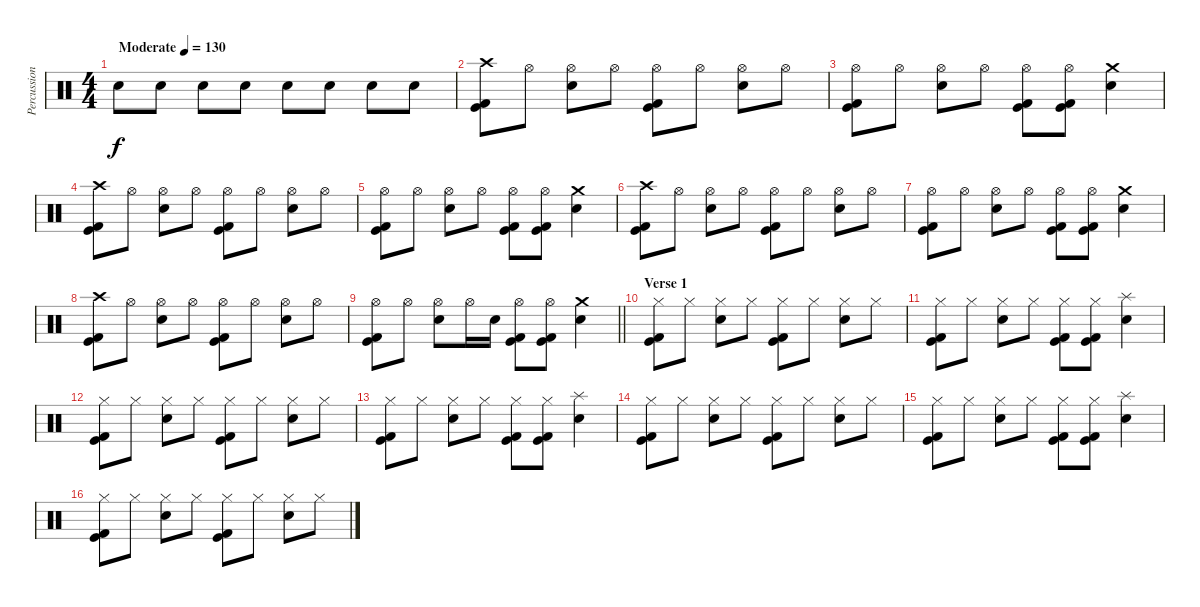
\track ("Percussion" "Percussion") {instrument percussion}
\staff {score}
\articulation defaults
\ts (4 4)
\tempo (130 "Moderate")
\clef neutral
\ks c "Electric Snare (hit)".8{dy f} "Electric Snare (hit)".8 "Electric Snare (hit)".8 "Electric Snare (hit)".8 "Electric Snare (hit)".8 "Electric Snare (hit)".8 "Electric Snare (hit)".8 "Electric Snare (hit)".8
|
("Crash high (hit)" "Kick (hit)" "Kick (hit) 2").8 "Hi-Hat (open)".8 ("Hi-Hat (open)" "Electric Snare (hit)").8 "Hi-Hat (open)".8 ("Hi-Hat (open)" "Kick (hit)" "Kick (hit) 2").8 "Hi-Hat (open)".8 ("Hi-Hat (open)" "Electric Snare (hit)").8 "Hi-Hat (open)".8 |
("Hi-Hat (open)" "Kick (hit)" "Kick (hit) 2").8 "Hi-Hat (open)".8 ("Hi-Hat (open)" "Electric Snare (hit)").8 "Hi-Hat (open)".8 ("Hi-Hat (open)" "Kick (hit)" "Kick (hit) 2").8 ("Hi-Hat (open)" "Kick (hit)" "Kick (hit) 2").8 ("Crash medium (hit)" "Electric Snare (hit)").4 |
("Crash high (hit)" "Kick (hit)" "Kick (hit) 2").8 "Hi-Hat (open)".8 ("Hi-Hat (open)" "Electric Snare (hit)").8 "Hi-Hat (open)".8 ("Hi-Hat (open)" "Kick (hit)" "Kick (hit) 2").8 "Hi-Hat (open)".8 ("Hi-Hat (open)" "Electric Snare (hit)").8 "Hi-Hat (open)".8 |
("Hi-Hat (open)" "Kick (hit)" "Kick (hit) 2").8 "Hi-Hat (open)".8 ("Hi-Hat (open)" "Electric Snare (hit)").8 "Hi-Hat (open)".8 ("Hi-Hat (open)" "Kick (hit)" "Kick (hit) 2").8 ("Hi-Hat (open)" "Kick (hit)" "Kick (hit) 2").8 ("Crash medium (hit)" "Electric Snare (hit)").4 |
("Crash high (hit)" "Kick (hit)" "Kick (hit) 2").8 "Hi-Hat (open)".8 ("Hi-Hat (open)" "Electric Snare (hit)").8 "Hi-Hat (open)".8 ("Hi-Hat (open)" "Kick (hit)" "Kick (hit) 2").8 "Hi-Hat (open)".8 ("Hi-Hat (open)" "Electric Snare (hit)").8 "Hi-Hat (open)".8 |
("Hi-Hat (open)" "Kick (hit)" "Kick (hit) 2").8 "Hi-Hat (open)".8 ("Hi-Hat (open)" "Electric Snare (hit)").8 "Hi-Hat (open)".8 ("Hi-Hat (open)" "Kick (hit)" "Kick (hit) 2").8 ("Hi-Hat (open)" "Kick (hit)" "Kick (hit) 2").8 ("Crash medium (hit)" "Electric Snare (hit)").4 |
("Crash high (hit)" "Kick (hit)" "Kick (hit) 2").8 "Hi-Hat (open)".8 ("Hi-Hat (open)" "Electric Snare (hit)").8 "Hi-Hat (open)".8 ("Hi-Hat (open)" "Kick (hit)" "Kick (hit) 2").8 "Hi-Hat (open)".8 ("Hi-Hat (open)" "Electric Snare (hit)").8 "Hi-Hat (open)".8 |
\barLineRight lightlight
("Hi-Hat (open)" "Kick (hit)" "Kick (hit) 2").8 "Hi-Hat (open)".8 ("Hi-Hat (open)" "Electric Snare (hit)").8 "Hi-Hat (open)".16 "Electric Snare (hit)".16 ("Hi-Hat (open)" "Kick (hit)" "Kick (hit) 2").8 ("Hi-Hat (open)" "Kick (hit)" "Kick (hit) 2").8 ("Crash medium (hit)" "Electric Snare (hit)").4 |
\section ("" "Verse 1")
("Hi-Hat (closed)" "Kick (hit)" "Kick (hit) 2").8 "Hi-Hat (closed)".8 ("Hi-Hat (closed)" "Electric Snare (hit)").8 "Hi-Hat (closed)".8 ("Hi-Hat (closed)" "Kick (hit)" "Kick (hit) 2").8 "Hi-Hat (closed)".8 ("Hi-Hat (closed)" "Electric Snare (hit)").8 "Hi-Hat (closed)".8 |
("Hi-Hat (closed)" "Kick (hit)" "Kick (hit) 2").8 "Hi-Hat (closed)".8 ("Hi-Hat (closed)" "Electric Snare (hit)").8 "Hi-Hat (closed)".8 ("Hi-Hat (closed)" "Kick (hit)" "Kick (hit) 2").8 ("Hi-Hat (closed)" "Kick (hit)" "Kick (hit) 2").8 ("Splash (hit)" "Electric Snare (hit)").4 |
("Hi-Hat (closed)" "Kick (hit)" "Kick (hit) 2").8 "Hi-Hat (closed)".8 ("Hi-Hat (closed)" "Electric Snare (hit)").8 "Hi-Hat (closed)".8 ("Hi-Hat (closed)" "Kick (hit)" "Kick (hit) 2").8 "Hi-Hat (closed)".8 ("Hi-Hat (closed)" "Electric Snare (hit)").8 "Hi-Hat (closed)".8 |
("Hi-Hat (closed)" "Kick (hit)" "Kick (hit) 2").8 "Hi-Hat (closed)".8 ("Hi-Hat (closed)" "Electric Snare (hit)").8 "Hi-Hat (closed)".8 ("Hi-Hat (closed)" "Kick (hit)" "Kick (hit) 2").8 ("Hi-Hat (closed)" "Kick (hit)" "Kick (hit) 2").8 ("Splash (hit)" "Electric Snare (hit)").4 |
("Hi-Hat (closed)" "Kick (hit)" "Kick (hit) 2").8 "Hi-Hat (closed)".8 ("Hi-Hat (closed)" "Electric Snare (hit)").8 "Hi-Hat (closed)".8 ("Hi-Hat (closed)" "Kick (hit)" "Kick (hit) 2").8 "Hi-Hat (closed)".8 ("Hi-Hat (closed)" "Electric Snare (hit)").8 "Hi-Hat (closed)".8 |
("Hi-Hat (closed)" "Kick (hit)" "Kick (hit) 2").8 "Hi-Hat (closed)".8 ("Hi-Hat (closed)" "Electric Snare (hit)").8 "Hi-Hat (closed)".8 ("Hi-Hat (closed)" "Kick (hit)" "Kick (hit) 2").8 ("Hi-Hat (closed)" "Kick (hit)" "Kick (hit) 2").8 ("Splash (hit)" "Electric Snare (hit)").4 |
("Hi-Hat (closed)" "Kick (hit)" "Kick (hit) 2").8 "Hi-Hat (closed)".8 ("Hi-Hat (closed)" "Electric Snare (hit)").8 "Hi-Hat (closed)".8 ("Hi-Hat (closed)" "Kick (hit)" "Kick (hit) 2").8 "Hi-Hat (closed)".8 ("Hi-Hat (closed)" "Electric Snare (hit)").8 "Hi-Hat (closed)".8
